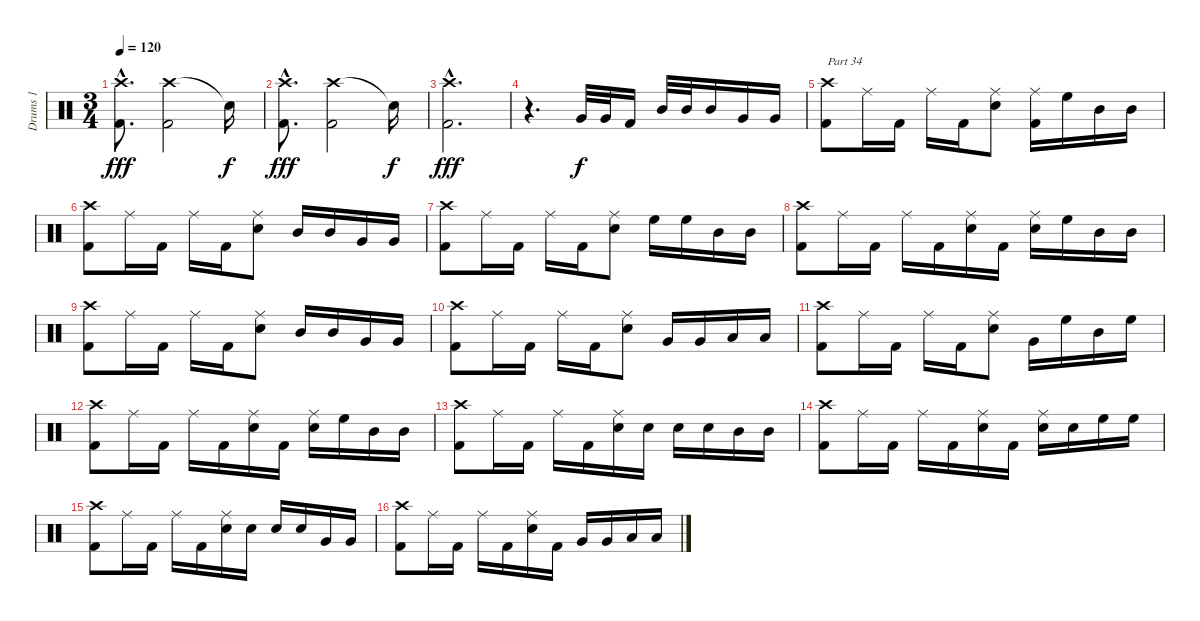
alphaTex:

\track ("Drums 1" "Drums 1") {instrument percussion}
\staff {score}
\articulation defaults
\ts (3 4)
\tempo 120
\clef neutral
\ks c
("Crash high (hit)"{hac} "Kick (hit) 2"{hac}).8{d dy fff} ("Crash high (hit)" "Kick (hit) 2").2 "Snare (hit)"{t}.16{dy f} |
("Crash high (hit)"{hac} "Kick (hit) 2"{hac}).8{d dy fff} ("Crash high (hit)" "Kick (hit) 2").2 "Snare (hit)"{t}.16{dy f} |
("Crash high (hit)"{hac} "Kick (hit) 2"{hac}).2{d dy fff} |
r.4{d} "Very Low Tom (hit)".32{dy f} "Very Low Tom (hit)".32 "Kick (hit) 2".16 "Mid Tom (hit)".32 "Mid Tom (hit)".32 "Mid Tom (hit)".16 "Very Low Tom (hit)".16 "Very Low Tom (hit)".16 |
("Crash high (hit)" "Kick (hit) 2").8{txt "Part 34"} "Ride (middle)".16 "Kick (hit) 2".16 "Ride (middle)".16 "Kick (hit) 2".16 ("Ride (middle)" "Snare (hit) 2").8 ("Ride (middle)" "Kick (hit) 2").16 "High Floor Tom (hit)".16 "Mid Tom (hit)".16 "Mid Tom (hit)".16 |
("Crash high (hit)" "Kick (hit) 2").8 "Ride (middle)".16 "Kick (hit) 2".16 "Ride (middle)".16 "Kick (hit) 2".16 ("Ride (middle)" "Snare (hit) 2").8 "Mid Tom (hit)".16 "Mid Tom (hit)".16 "Very Low Tom (hit)".16 "Very Low Tom (hit)".16 |
("Crash high (hit)" "Kick (hit) 2").8 "Ride (middle)".16 "Kick (hit) 2".16 "Ride (middle)".16 "Kick (hit) 2".16 ("Ride (middle)" "Snare (hit) 2").8 "High Floor Tom (hit)".16 "High Floor Tom (hit)".16 "Mid Tom (hit)".16 "Mid Tom (hit)".16 |
("Crash high (hit)" "Kick (hit) 2").8 "Ride (middle)".16 "Kick (hit) 2".16 "Ride (middle)".16 "Kick (hit) 2".16 ("Ride (middle)" "Snare (hit) 2").16 "Kick (hit) 2".16 ("Ride (middle)" "Snare (hit) 2").16 "High Floor Tom (hit)".16 "Mid Tom (hit)".16 "Mid Tom (hit)".16 |
("Crash high (hit)" "Kick (hit) 2").8 "Ride (middle)".16 "Kick (hit) 2".16 "Ride (middle)".16 "Kick (hit) 2".16 ("Ride (middle)" "Snare (hit) 2").8 "Mid Tom (hit)".16 "Mid Tom (hit)".16 "Very Low Tom (hit)".16 "Very Low Tom (hit)".16 |
("Crash high (hit)" "Kick (hit) 2").8 "Ride (middle)".16 "Kick (hit) 2".16 "Ride (middle)".16 "Kick (hit) 2".16 ("Ride (middle)" "Snare (hit) 2").8 "Very Low Tom (hit)".16 "Very Low Tom (hit)".16 "Low Floor Tom (hit)".16 "Low Floor Tom (hit)".16 |
("Crash high (hit)" "Kick (hit) 2").8 "Ride (middle)".16 "Kick (hit) 2".16 "Ride (middle)".16 "Kick (hit) 2".16 ("Ride (middle)" "Snare (hit) 2").8 "Very Low Tom (hit)".16 "High Floor Tom (hit)".16 "Mid Tom (hit)".16 "High Floor Tom (hit)".16 |
("Crash high (hit)" "Kick (hit) 2").8 "Ride (middle)".16 "Kick (hit) 2".16 "Ride (middle)".16 "Kick (hit) 2".16 ("Ride (middle)" "Snare (hit) 2").16 "Kick (hit) 2".16 ("Ride (middle)" "Snare (hit) 2").16 "High Floor Tom (hit)".16 "Mid Tom (hit)".16 "Mid Tom (hit)".16 |
("Crash high (hit)" "Kick (hit) 2").8 "Ride (middle)".16 "Kick (hit) 2".16 "Ride (middle)".16 "Kick (hit) 2".16 ("Ride (middle)" "Snare (hit) 2").16 "Snare (hit) 2".16 "Snare (hit) 2".16 "Snare (hit) 2".16 "Mid Tom (hit)".16 "Mid Tom (hit)".16 |
("Kick (hit) 2" "Crash high (hit)").8 "Ride (middle)".16 "Kick (hit) 2".16 "Ride (middle)".16 "Kick (hit) 2".16 ("Ride (middle)" "Snare (hit) 2").16 "Kick (hit) 2".16 ("Ride (middle)" "Snare (hit) 2").16 "Snare (hit) 2".16 "High Floor Tom (hit)".16 "High Floor Tom (hit)".16 |
("Crash high (hit)" "Kick (hit) 2").8 "Ride (middle)".16 "Kick (hit) 2".16 "Ride (middle)".16 "Kick (hit) 2".16 ("Ride (middle)" "Snare (hit) 2").16 "Snare (hit) 2".16 "Snare (hit) 2".16 "Snare (hit) 2".16 "Very Low Tom (hit)".16 "Very Low Tom (hit)".16 |
("Crash high (hit)" "Kick (hit) 2").8 "Ride (middle)".16 "Kick (hit) 2".16 "Ride (middle)".16 "Kick (hit) 2".16 ("Ride (middle)" "Snare (hit) 2").16 "Kick (hit) 2".16 "Very Low Tom (hit)".16 "Very Low Tom (hit)".16 "Low Floor Tom (hit)".16 "Low Floor Tom (hit)".16
